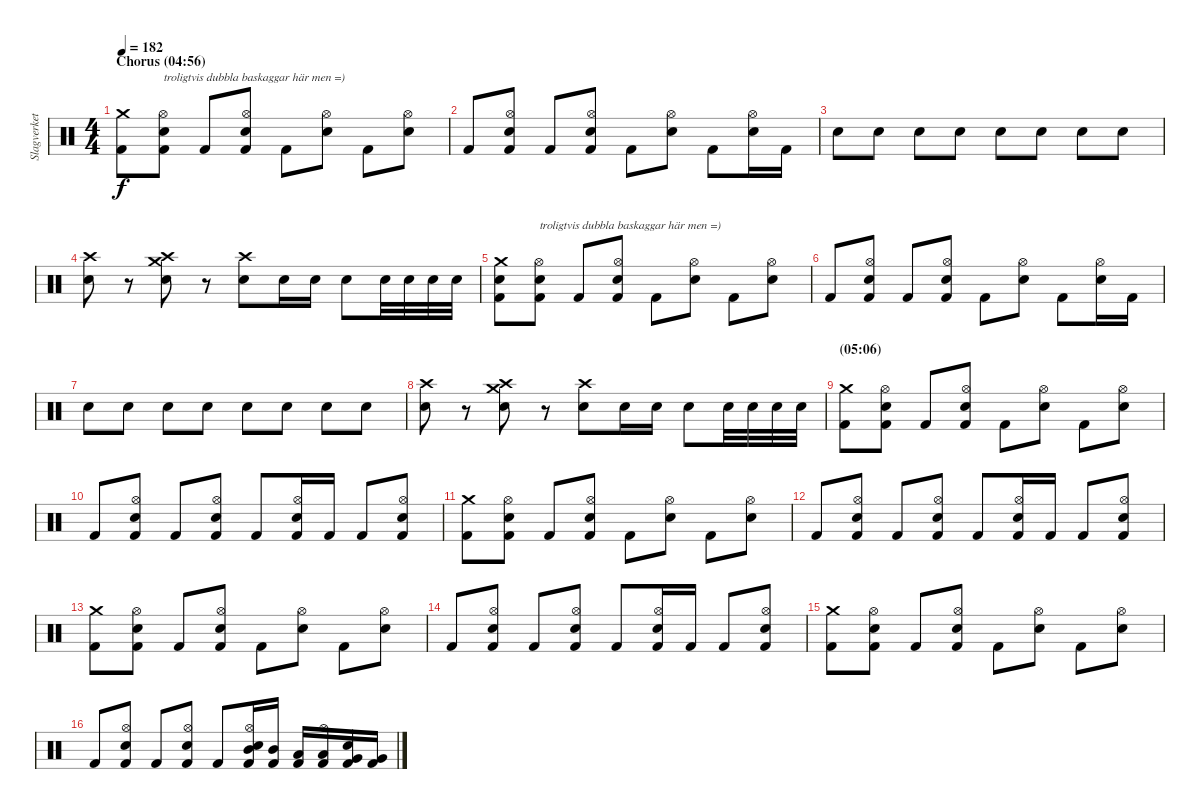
\track ("Slagverket! =)" "Slagverket") {instrument percussion}
\staff {score}
\articulation defaults
\ts (4 4)
\section ("" "Chorus (04:56)")
\tempo 182
\clef neutral
\ks c
("Crash medium (hit)" "Kick (hit) 2").8{dy f} ("Hi-Hat (open)" "Snare (hit) 2" "Kick (hit) 2").8{txt "troligtvis dubbla baskaggar här men =)"} "Kick (hit) 2".8 ("Hi-Hat (open)" "Snare (hit) 2" "Kick (hit) 2").8 "Kick (hit) 2".8 ("Hi-Hat (open)" "Snare (hit) 2").8 "Kick (hit) 2".8 ("Hi-Hat (open)" "Snare (hit) 2").8 |
"Kick (hit) 2".8 ("Hi-Hat (open)" "Snare (hit) 2" "Kick (hit) 2").8 "Kick (hit) 2".8 ("Hi-Hat (open)" "Snare (hit) 2" "Kick (hit) 2").8 "Kick (hit) 2".8 ("Hi-Hat (open)" "Snare (hit) 2").8 "Kick (hit) 2".8 ("Hi-Hat (open)" "Snare (hit) 2").16 "Kick (hit) 2".16 |
"Snare (hit) 2".8 "Snare (hit) 2".8 "Snare (hit) 2".8 "Snare (hit) 2".8 "Snare (hit) 2".8 "Snare (hit) 2".8 "Snare (hit) 2".8 "Snare (hit) 2".8 |
("Crash high (hit)" "Snare (hit) 2").8 r.8 ("Crash high (hit)" "Crash medium (hit)" "Snare (hit) 2").8 r.8 ("Crash high (hit)" "Snare (hit) 2").8 "Snare (hit) 2".16 "Snare (hit) 2".16 "Snare (hit) 2".8 "Snare (hit) 2".32 "Snare (hit) 2".32 "Snare (hit) 2".32 "Snare (hit) 2".32 |
("Crash medium (hit)" "Snare (hit) 2" "Kick (hit) 2").8 ("Hi-Hat (open)" "Snare (hit) 2" "Kick (hit) 2").8{txt "troligtvis dubbla baskaggar här men =)"} "Kick (hit) 2".8 ("Hi-Hat (open)" "Snare (hit) 2" "Kick (hit) 2").8 "Kick (hit) 2".8 ("Hi-Hat (open)" "Snare (hit) 2").8 "Kick (hit) 2".8 ("Hi-Hat (open)" "Snare (hit) 2").8 |
"Kick (hit) 2".8 ("Hi-Hat (open)" "Snare (hit) 2" "Kick (hit) 2").8 "Kick (hit) 2".8 ("Hi-Hat (open)" "Snare (hit) 2" "Kick (hit) 2").8 "Kick (hit) 2".8 ("Hi-Hat (open)" "Snare (hit) 2").8 "Kick (hit) 2".8 ("Hi-Hat (open)" "Snare (hit) 2").16 "Kick (hit) 2".16 |
"Snare (hit) 2".8 "Snare (hit) 2".8 "Snare (hit) 2".8 "Snare (hit) 2".8 "Snare (hit) 2".8 "Snare (hit) 2".8 "Snare (hit) 2".8 "Snare (hit) 2".8 |
("Crash high (hit)" "Snare (hit) 2").8 r.8 ("Crash high (hit)" "Crash medium (hit)" "Snare (hit) 2").8 r.8 ("Crash high (hit)" "Snare (hit) 2").8 "Snare (hit) 2".16 "Snare (hit) 2".16 "Snare (hit) 2".8 "Snare (hit) 2".32 "Snare (hit) 2".32 "Snare (hit) 2".32 "Snare (hit) 2".32 |
\section ("" "(05:06)")
("Crash medium (hit)" "Kick (hit) 2").8 ("Hi-Hat (open)" "Snare (hit) 2" "Kick (hit) 2").8 "Kick (hit) 2".8 ("Hi-Hat (open)" "Snare (hit) 2" "Kick (hit) 2").8 "Kick (hit) 2".8 ("Hi-Hat (open)" "Snare (hit) 2").8 "Kick (hit) 2".8 ("Hi-Hat (open)" "Snare (hit) 2").8 |
"Kick (hit) 2".8 ("Hi-Hat (open)" "Snare (hit) 2" "Kick (hit) 2").8 "Kick (hit) 2".8 ("Hi-Hat (open)" "Snare (hit) 2" "Kick (hit) 2").8 "Kick (hit) 2".8 ("Hi-Hat (open)" "Snare (hit) 2" "Kick (hit) 2").16 "Kick (hit) 2".16 "Kick (hit) 2".8 ("Hi-Hat (open)" "Snare (hit) 2" "Kick (hit) 2").8 |
("Crash medium (hit)" "Kick (hit) 2").8 ("Hi-Hat (open)" "Snare (hit) 2" "Kick (hit) 2").8 "Kick (hit) 2".8 ("Hi-Hat (open)" "Snare (hit) 2" "Kick (hit) 2").8 "Kick (hit) 2".8 ("Hi-Hat (open)" "Snare (hit) 2").8 "Kick (hit) 2".8 ("Hi-Hat (open)" "Snare (hit) 2").8 |
"Kick (hit) 2".8 ("Hi-Hat (open)" "Snare (hit) 2" "Kick (hit) 2").8 "Kick (hit) 2".8 ("Hi-Hat (open)" "Snare (hit) 2" "Kick (hit) 2").8 "Kick (hit) 2".8 ("Hi-Hat (open)" "Snare (hit) 2" "Kick (hit) 2").16 "Kick (hit) 2".16 "Kick (hit) 2".8 ("Hi-Hat (open)" "Snare (hit) 2" "Kick (hit) 2").8 |
("Crash medium (hit)" "Kick (hit) 2").8 ("Hi-Hat (open)" "Snare (hit) 2" "Kick (hit) 2").8 "Kick (hit) 2".8 ("Hi-Hat (open)" "Snare (hit) 2" "Kick (hit) 2").8 "Kick (hit) 2".8 ("Hi-Hat (open)" "Snare (hit) 2").8 "Kick (hit) 2".8 ("Hi-Hat (open)" "Snare (hit) 2").8 |
"Kick (hit) 2".8 ("Hi-Hat (open)" "Snare (hit) 2" "Kick (hit) 2").8 "Kick (hit) 2".8 ("Hi-Hat (open)" "Snare (hit) 2" "Kick (hit) 2").8 "Kick (hit) 2".8 ("Hi-Hat (open)" "Snare (hit) 2" "Kick (hit) 2").16 "Kick (hit) 2".16 "Kick (hit) 2".8 ("Hi-Hat (open)" "Snare (hit) 2" "Kick (hit) 2").8 |
("Crash medium (hit)" "Kick (hit) 2").8 ("Hi-Hat (open)" "Snare (hit) 2" "Kick (hit) 2").8 "Kick (hit) 2".8 ("Hi-Hat (open)" "Snare (hit) 2" "Kick (hit) 2").8 "Kick (hit) 2".8 ("Hi-Hat (open)" "Snare (hit) 2").8 "Kick (hit) 2".8 ("Hi-Hat (open)" "Snare (hit) 2").8 |
"Kick (hit) 2".8 ("Hi-Hat (open)" "Snare (hit) 2" "Kick (hit) 2").8 "Kick (hit) 2".8 ("Hi-Hat (open)" "Snare (hit) 2" "Kick (hit) 2").8 "Kick (hit) 2".8 ("Hi-Hat (open)" "Mid Tom (hit)" "Snare (hit) 2" "Kick (hit) 2").16 ("Mid Tom (hit)" "Kick (hit) 2").16 ("Low Tom (hit)" "Kick (hit) 2").16 ("Hi-Hat (open)" "Low Tom (hit)" "Kick (hit) 2").16 ("Very Low Tom (hit)" "Snare (hit) 2" "Kick (hit) 2").16 ("Very Low Tom (hit)" "Kick (hit) 2").16
